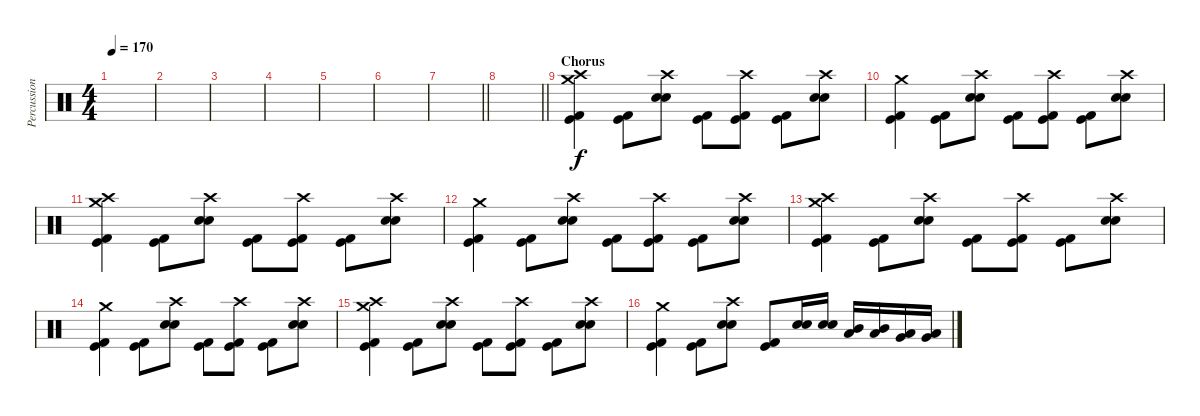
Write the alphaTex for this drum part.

\track ("Percussion" "Percussion") {instrument percussion}
\staff {score}
\articulation defaults
\ts (4 4)
\tempo 170
\clef neutral
\ks c
|
|
|
|
|
|
\barLineRight lightlight
|
\barLineRight lightlight
|
\section ("" "Chorus")
("Crash medium (hit)" "Crash high (hit)" "Kick (hit)" "Kick (hit) 2").4 ("Kick (hit)" "Kick (hit) 2").8 ("Crash high (hit)" "Snare (hit) 2" "Electric Snare (hit)").8 ("Kick (hit)" "Kick (hit) 2").8 ("Crash high (hit)" "Kick (hit)" "Kick (hit) 2").8 ("Kick (hit)" "Kick (hit) 2").8 ("Crash high (hit)" "Snare (hit) 2" "Electric Snare (hit)").8 |
("Crash medium (hit)" "Kick (hit)" "Kick (hit) 2").4 ("Kick (hit)" "Kick (hit) 2").8 ("Crash high (hit)" "Snare (hit) 2" "Electric Snare (hit)").8 ("Kick (hit)" "Kick (hit) 2").8 ("Crash high (hit)" "Kick (hit)" "Kick (hit) 2").8 ("Kick (hit)" "Kick (hit) 2").8 ("Crash high (hit)" "Snare (hit) 2" "Electric Snare (hit)").8 |
("Crash medium (hit)" "Crash high (hit)" "Kick (hit)" "Kick (hit) 2").4 ("Kick (hit)" "Kick (hit) 2").8 ("Crash high (hit)" "Snare (hit) 2" "Electric Snare (hit)").8 ("Kick (hit)" "Kick (hit) 2").8 ("Crash high (hit)" "Kick (hit)" "Kick (hit) 2").8 ("Kick (hit)" "Kick (hit) 2").8 ("Crash high (hit)" "Snare (hit) 2" "Electric Snare (hit)").8 |
("Crash medium (hit)" "Kick (hit)" "Kick (hit) 2").4 ("Kick (hit)" "Kick (hit) 2").8 ("Crash high (hit)" "Snare (hit) 2" "Electric Snare (hit)").8 ("Kick (hit)" "Kick (hit) 2").8 ("Crash high (hit)" "Kick (hit)" "Kick (hit) 2").8 ("Kick (hit)" "Kick (hit) 2").8 ("Crash high (hit)" "Snare (hit) 2" "Electric Snare (hit)").8 |
("Crash medium (hit)" "Crash high (hit)" "Kick (hit)" "Kick (hit) 2").4 ("Kick (hit)" "Kick (hit) 2").8 ("Crash high (hit)" "Snare (hit) 2" "Electric Snare (hit)").8 ("Kick (hit)" "Kick (hit) 2").8 ("Crash high (hit)" "Kick (hit)" "Kick (hit) 2").8 ("Kick (hit)" "Kick (hit) 2").8 ("Crash high (hit)" "Snare (hit) 2" "Electric Snare (hit)").8 |
("Crash medium (hit)" "Kick (hit)" "Kick (hit) 2").4 ("Kick (hit)" "Kick (hit) 2").8 ("Crash high (hit)" "Snare (hit) 2" "Electric Snare (hit)").8 ("Kick (hit)" "Kick (hit) 2").8 ("Crash high (hit)" "Kick (hit)" "Kick (hit) 2").8 ("Kick (hit)" "Kick (hit) 2").8 ("Crash high (hit)" "Snare (hit) 2" "Electric Snare (hit)").8 |
("Crash medium (hit)" "Crash high (hit)" "Kick (hit)" "Kick (hit) 2").4 ("Kick (hit)" "Kick (hit) 2").8 ("Crash high (hit)" "Snare (hit) 2" "Electric Snare (hit)").8 ("Kick (hit)" "Kick (hit) 2").8 ("Crash high (hit)" "Kick (hit)" "Kick (hit) 2").8 ("Kick (hit)" "Kick (hit) 2").8 ("Crash high (hit)" "Snare (hit) 2" "Electric Snare (hit)").8 |
("Crash medium (hit)" "Kick (hit)" "Kick (hit) 2").4 ("Kick (hit)" "Kick (hit) 2").8 ("Crash high (hit)" "Snare (hit) 2" "Electric Snare (hit)").8 ("Kick (hit)" "Kick (hit) 2").8 ("Snare (hit) 2" "Electric Snare (hit)").16 ("Snare (hit) 2" "Electric Snare (hit)").16 ("Low Tom (hit)" "Mid Tom (hit)").16 ("Low Tom (hit)" "Mid Tom (hit)").16 ("Very Low Tom (hit)" "Low Tom (hit)").16 ("Very Low Tom (hit)" "Low Tom (hit)").16
